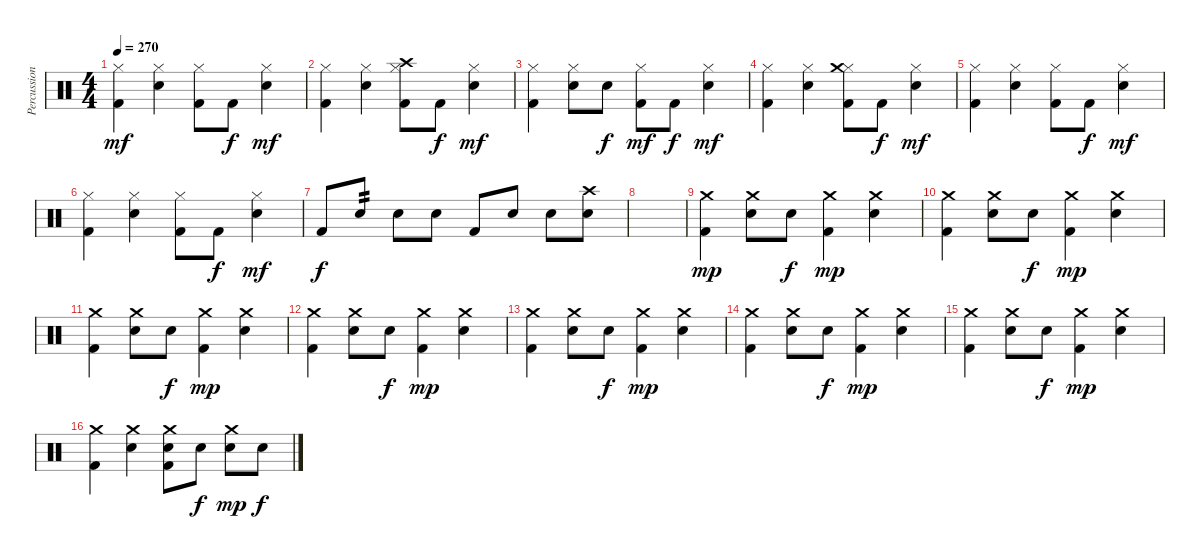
\track ("Percussion" "Percussion") {instrument percussion}
\staff {score}
\articulation defaults
\ts (4 4)
\tempo 270
\clef neutral
\ks c
("Hi-Hat (closed)" "Kick (hit) 2").4{dy mf} ("Hi-Hat (closed)" "Electric Snare (hit)").4 ("Hi-Hat (closed)" "Kick (hit) 2").8 "Kick (hit) 2".8{dy f} ("Hi-Hat (closed)" "Electric Snare (hit)").4{dy mf} |
("Hi-Hat (closed)" "Kick (hit) 2").4 ("Hi-Hat (closed)" "Electric Snare (hit)").4 ("Hi-Hat (closed)" "Crash high (hit)" "Kick (hit) 2").8 "Kick (hit) 2".8{dy f} ("Hi-Hat (closed)" "Electric Snare (hit)").4{dy mf} |
("Hi-Hat (closed)" "Kick (hit) 2").4 ("Hi-Hat (closed)" "Electric Snare (hit)").8 "Electric Snare (hit)".8{dy f} ("Hi-Hat (closed)" "Kick (hit) 2").8{dy mf} "Kick (hit) 2".8{dy f} ("Hi-Hat (closed)" "Electric Snare (hit)").4{dy mf} |
("Hi-Hat (closed)" "Kick (hit) 2").4 ("Hi-Hat (closed)" "Electric Snare (hit)").4 ("Hi-Hat (closed)" "Crash medium (hit)" "Kick (hit) 2").8 "Kick (hit) 2".8{dy f} ("Hi-Hat (closed)" "Electric Snare (hit)").4{dy mf} |
("Hi-Hat (closed)" "Kick (hit) 2").4 ("Hi-Hat (closed)" "Electric Snare (hit)").4 ("Hi-Hat (closed)" "Kick (hit) 2").8 "Kick (hit) 2".8{dy f} ("Hi-Hat (closed)" "Electric Snare (hit)").4{dy mf} |
("Hi-Hat (closed)" "Kick (hit) 2").4 ("Hi-Hat (closed)" "Electric Snare (hit)").4 ("Hi-Hat (closed)" "Kick (hit) 2").8 "Kick (hit) 2".8{dy f} ("Hi-Hat (closed)" "Electric Snare (hit)").4{dy mf} |
"Kick (hit) 2".8{dy f} "Electric Snare (hit)".8{tp 2} "Electric Snare (hit)".8 "Electric Snare (hit)".8 "Kick (hit) 2".8 "Electric Snare (hit)".8 "Electric Snare (hit)".8 ("Crash high (hit)" "Electric Snare (hit)").8 |
|
("Crash medium (hit)" "Kick (hit) 2").4{dy mp} ("Crash medium (hit)" "Electric Snare (hit)").8 "Electric Snare (hit)".8{dy f} ("Crash medium (hit)" "Kick (hit) 2").4{dy mp} ("Crash medium (hit)" "Electric Snare (hit)").4 |
("Crash medium (hit)" "Kick (hit) 2").4 ("Crash medium (hit)" "Electric Snare (hit)").8 "Electric Snare (hit)".8{dy f} ("Crash medium (hit)" "Kick (hit) 2").4{dy mp} ("Crash medium (hit)" "Electric Snare (hit)").4 |
("Crash medium (hit)" "Kick (hit) 2").4 ("Crash medium (hit)" "Electric Snare (hit)").8 "Electric Snare (hit)".8{dy f} ("Crash medium (hit)" "Kick (hit) 2").4{dy mp} ("Crash medium (hit)" "Electric Snare (hit)").4 |
("Crash medium (hit)" "Kick (hit) 2").4 ("Crash medium (hit)" "Electric Snare (hit)").8 "Electric Snare (hit)".8{dy f} ("Crash medium (hit)" "Kick (hit) 2").4{dy mp} ("Crash medium (hit)" "Electric Snare (hit)").4 |
("Crash medium (hit)" "Kick (hit) 2").4 ("Crash medium (hit)" "Electric Snare (hit)").8 "Electric Snare (hit)".8{dy f} ("Crash medium (hit)" "Kick (hit) 2").4{dy mp} ("Crash medium (hit)" "Electric Snare (hit)").4 |
("Crash medium (hit)" "Kick (hit) 2").4 ("Crash medium (hit)" "Electric Snare (hit)").8 "Electric Snare (hit)".8{dy f} ("Crash medium (hit)" "Kick (hit) 2").4{dy mp} ("Crash medium (hit)" "Electric Snare (hit)").4 |
("Crash medium (hit)" "Kick (hit) 2").4 ("Crash medium (hit)" "Electric Snare (hit)").8 "Electric Snare (hit)".8{dy f} ("Crash medium (hit)" "Kick (hit) 2").4{dy mp} ("Crash medium (hit)" "Electric Snare (hit)").4 |
("Crash medium (hit)" "Kick (hit) 2").4 ("Crash medium (hit)" "Electric Snare (hit)").4 ("Crash medium (hit)" "Electric Snare (hit)" "Kick (hit) 2").8 "Electric Snare (hit)".8{dy f} ("Crash medium (hit)" "Electric Snare (hit)").8{dy mp} "Electric Snare (hit)".8{dy f}
